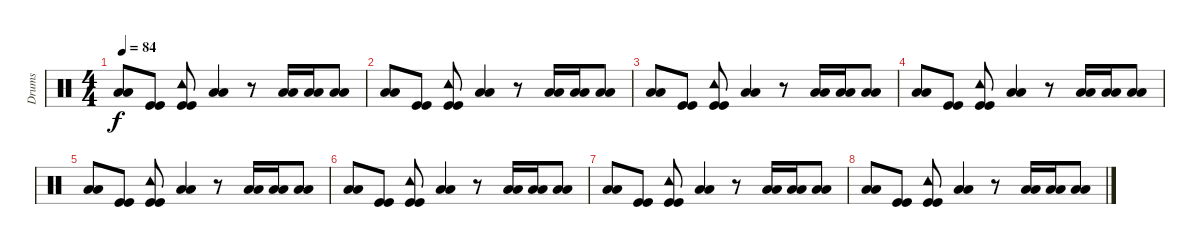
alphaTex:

\track ("Drums" "Drums") {instrument percussion}
\staff {score}
\articulation defaults
\ts (4 4)
\tempo 84
\clef neutral
\ks c
("Low Floor Tom (hit)" "Low Floor Tom (hit)").8{dy f} ("Kick (hit)" "Kick (hit)").8 ("Kick (hit)" "Kick (hit)" "Tambourine (hit)").8 ("Low Tom (hit)" "Low Tom (hit)").4 r.8 ("Low Tom (hit)" "Low Tom (hit)").16 ("Low Tom (hit)" "Low Tom (hit)").16 ("Low Floor Tom (hit)" "Low Floor Tom (hit)").8 |
("Low Floor Tom (hit)" "Low Floor Tom (hit)").8 ("Kick (hit)" "Kick (hit)").8 ("Kick (hit)" "Kick (hit)" "Tambourine (hit)").8 ("Low Tom (hit)" "Low Tom (hit)").4 r.8 ("Low Tom (hit)" "Low Tom (hit)").16 ("Low Tom (hit)" "Low Tom (hit)").16 ("Low Floor Tom (hit)" "Low Floor Tom (hit)").8 |
("Low Floor Tom (hit)" "Low Floor Tom (hit)").8 ("Kick (hit)" "Kick (hit)").8 ("Kick (hit)" "Kick (hit)" "Tambourine (hit)").8 ("Low Tom (hit)" "Low Tom (hit)").4 r.8 ("Low Tom (hit)" "Low Tom (hit)").16 ("Low Tom (hit)" "Low Tom (hit)").16 ("Low Floor Tom (hit)" "Low Floor Tom (hit)").8 |
("Low Floor Tom (hit)" "Low Floor Tom (hit)").8 ("Kick (hit)" "Kick (hit)").8 ("Kick (hit)" "Kick (hit)" "Tambourine (hit)").8 ("Low Tom (hit)" "Low Tom (hit)").4 r.8 ("Low Tom (hit)" "Low Tom (hit)").16 ("Low Tom (hit)" "Low Tom (hit)").16 ("Low Floor Tom (hit)" "Low Floor Tom (hit)").8 |
("Low Floor Tom (hit)" "Low Floor Tom (hit)").8 ("Kick (hit)" "Kick (hit)").8 ("Kick (hit)" "Kick (hit)" "Tambourine (hit)").8 ("Low Tom (hit)" "Low Tom (hit)").4 r.8 ("Low Tom (hit)" "Low Tom (hit)").16 ("Low Tom (hit)" "Low Tom (hit)").16 ("Low Floor Tom (hit)" "Low Floor Tom (hit)").8 |
("Low Floor Tom (hit)" "Low Floor Tom (hit)").8 ("Kick (hit)" "Kick (hit)").8 ("Kick (hit)" "Kick (hit)" "Tambourine (hit)").8 ("Low Tom (hit)" "Low Tom (hit)").4 r.8 ("Low Tom (hit)" "Low Tom (hit)").16 ("Low Tom (hit)" "Low Tom (hit)").16 ("Low Floor Tom (hit)" "Low Floor Tom (hit)").8 |
("Low Floor Tom (hit)" "Low Floor Tom (hit)").8 ("Kick (hit)" "Kick (hit)").8 ("Kick (hit)" "Kick (hit)" "Tambourine (hit)").8 ("Low Tom (hit)" "Low Tom (hit)").4 r.8 ("Low Tom (hit)" "Low Tom (hit)").16 ("Low Tom (hit)" "Low Tom (hit)").16 ("Low Floor Tom (hit)" "Low Floor Tom (hit)").8 |
("Low Floor Tom (hit)" "Low Floor Tom (hit)").8 ("Kick (hit)" "Kick (hit)").8 ("Kick (hit)" "Kick (hit)" "Tambourine (hit)").8 ("Low Tom (hit)" "Low Tom (hit)").4 r.8 ("Low Tom (hit)" "Low Tom (hit)").16 ("Low Tom (hit)" "Low Tom (hit)").16 ("Low Floor Tom (hit)" "Low Floor Tom (hit)").8
